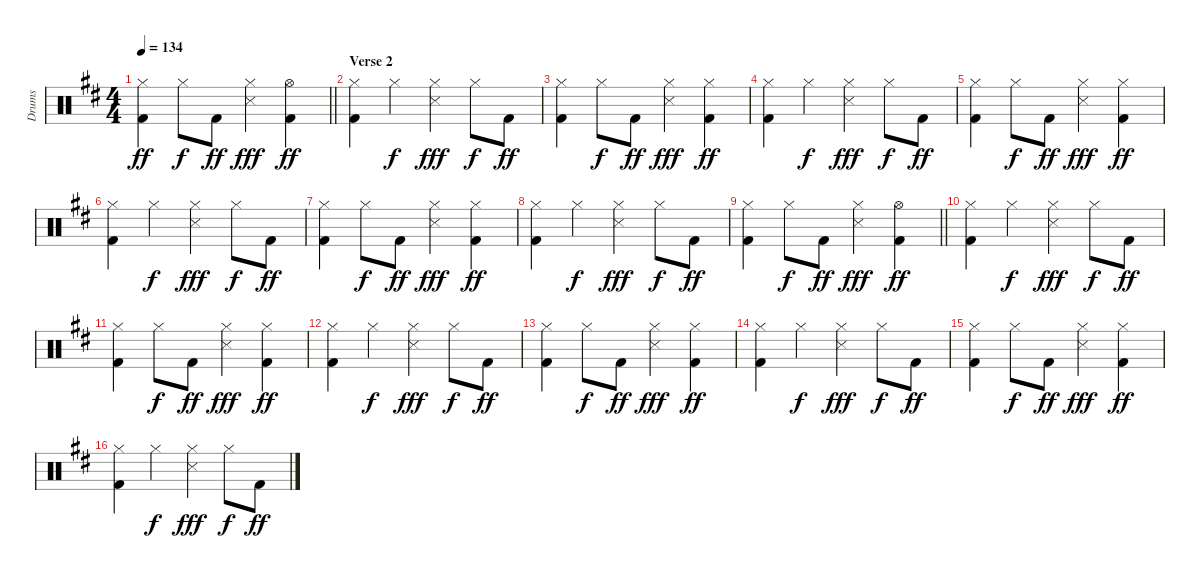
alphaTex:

\track ("Drums" "Drums") {instrument percussion}
\staff {score}
\articulation defaults
\ts (4 4)
\tempo 134
\clef neutral
\barLineRight lightlight
\ks d
("Kick (hit) 2" "Hi-Hat (closed)").4{dy ff} "Hi-Hat (closed)".8{dy f} "Kick (hit) 2".8{dy ff} ("Snare (side stick) 3" "Hi-Hat (closed)").4{dy fff} ("Kick (hit) 2" "Hi-Hat (open)").4{dy ff} |
\section ("" "Verse 2")
("Kick (hit) 2" "Hi-Hat (closed)").4 "Hi-Hat (closed)".4{dy f} ("Snare (side stick) 3" "Hi-Hat (closed)").4{dy fff} "Hi-Hat (closed)".8{dy f} "Kick (hit) 2".8{dy ff} |
("Kick (hit) 2" "Hi-Hat (closed)").4 "Hi-Hat (closed)".8{dy f} "Kick (hit) 2".8{dy ff} ("Snare (side stick) 3" "Hi-Hat (closed)").4{dy fff} ("Kick (hit) 2" "Hi-Hat (closed)").4{dy ff} |
("Kick (hit) 2" "Hi-Hat (closed)").4 "Hi-Hat (closed)".4{dy f} ("Snare (side stick) 3" "Hi-Hat (closed)").4{dy fff} "Hi-Hat (closed)".8{dy f} "Kick (hit) 2".8{dy ff} |
("Kick (hit) 2" "Hi-Hat (closed)").4 "Hi-Hat (closed)".8{dy f} "Kick (hit) 2".8{dy ff} ("Snare (side stick) 3" "Hi-Hat (closed)").4{dy fff} ("Kick (hit) 2" "Hi-Hat (closed)").4{dy ff} |
("Kick (hit) 2" "Hi-Hat (closed)").4 "Hi-Hat (closed)".4{dy f} ("Snare (side stick) 3" "Hi-Hat (closed)").4{dy fff} "Hi-Hat (closed)".8{dy f} "Kick (hit) 2".8{dy ff} |
("Kick (hit) 2" "Hi-Hat (closed)").4 "Hi-Hat (closed)".8{dy f} "Kick (hit) 2".8{dy ff} ("Snare (side stick) 3" "Hi-Hat (closed)").4{dy fff} ("Kick (hit) 2" "Hi-Hat (closed)").4{dy ff} |
("Kick (hit) 2" "Hi-Hat (closed)").4 "Hi-Hat (closed)".4{dy f} ("Snare (side stick) 3" "Hi-Hat (closed)").4{dy fff} "Hi-Hat (closed)".8{dy f} "Kick (hit) 2".8{dy ff} |
\barLineRight lightlight
("Kick (hit) 2" "Hi-Hat (closed)").4 "Hi-Hat (closed)".8{dy f} "Kick (hit) 2".8{dy ff} ("Snare (side stick) 3" "Hi-Hat (closed)").4{dy fff} ("Kick (hit) 2" "Hi-Hat (open)").4{dy ff} |
("Kick (hit) 2" "Hi-Hat (closed)").4 "Hi-Hat (closed)".4{dy f} ("Snare (side stick) 3" "Hi-Hat (closed)").4{dy fff} "Hi-Hat (closed)".8{dy f} "Kick (hit) 2".8{dy ff} |
("Kick (hit) 2" "Hi-Hat (closed)").4 "Hi-Hat (closed)".8{dy f} "Kick (hit) 2".8{dy ff} ("Snare (side stick) 3" "Hi-Hat (closed)").4{dy fff} ("Kick (hit) 2" "Hi-Hat (closed)").4{dy ff} |
("Kick (hit) 2" "Hi-Hat (closed)").4 "Hi-Hat (closed)".4{dy f} ("Snare (side stick) 3" "Hi-Hat (closed)").4{dy fff} "Hi-Hat (closed)".8{dy f} "Kick (hit) 2".8{dy ff} |
("Kick (hit) 2" "Hi-Hat (closed)").4 "Hi-Hat (closed)".8{dy f} "Kick (hit) 2".8{dy ff} ("Snare (side stick) 3" "Hi-Hat (closed)").4{dy fff} ("Kick (hit) 2" "Hi-Hat (closed)").4{dy ff} |
("Kick (hit) 2" "Hi-Hat (closed)").4 "Hi-Hat (closed)".4{dy f} ("Snare (side stick) 3" "Hi-Hat (closed)").4{dy fff} "Hi-Hat (closed)".8{dy f} "Kick (hit) 2".8{dy ff} |
("Kick (hit) 2" "Hi-Hat (closed)").4 "Hi-Hat (closed)".8{dy f} "Kick (hit) 2".8{dy ff} ("Snare (side stick) 3" "Hi-Hat (closed)").4{dy fff} ("Kick (hit) 2" "Hi-Hat (closed)").4{dy ff} |
("Kick (hit) 2" "Hi-Hat (closed)").4 "Hi-Hat (closed)".4{dy f} ("Snare (side stick) 3" "Hi-Hat (closed)").4{dy fff} "Hi-Hat (closed)".8{dy f} "Kick (hit) 2".8{dy ff}
